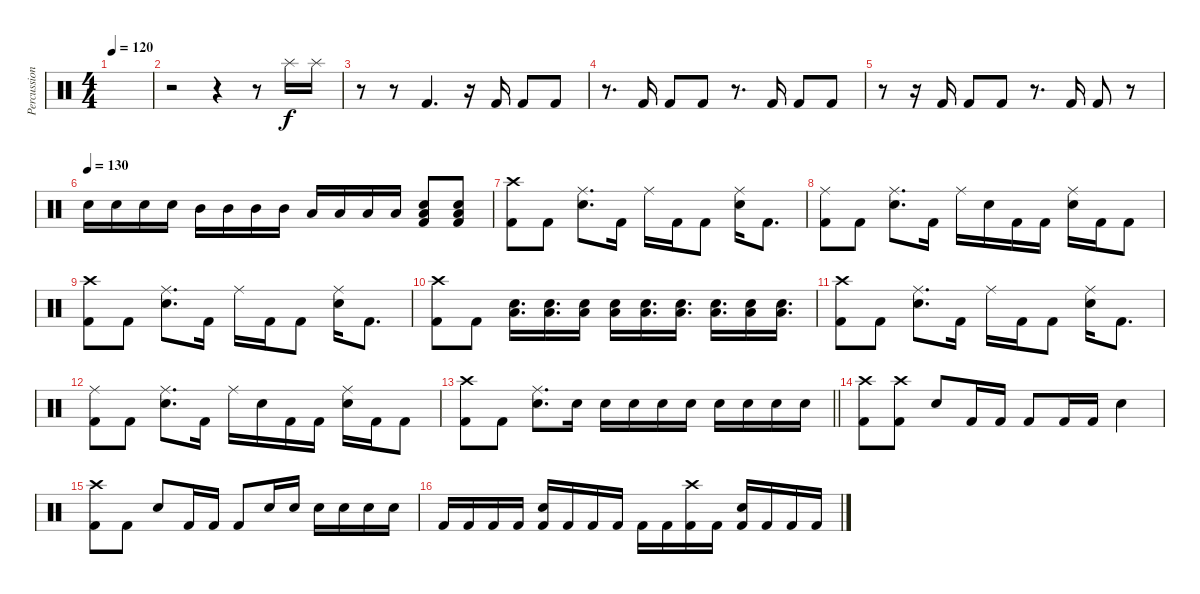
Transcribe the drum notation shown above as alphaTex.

\track ("Percussion" "Percussion") {instrument percussion}
\staff {score}
\articulation defaults
\ts (4 4)
\tempo 120
\clef neutral
\ks c
|
r.2 r.4 r.8 "Splash (hit)".16 "Splash (hit)".16 |
r.8 r.8 "Kick (hit) 2".4{d} r.16 "Kick (hit) 2".16 "Kick (hit) 2".8 "Kick (hit) 2".8 |
r.8{d} "Kick (hit) 2".16 "Kick (hit) 2".8 "Kick (hit) 2".8 r.8{d} "Kick (hit) 2".16 "Kick (hit) 2".8 "Kick (hit) 2".8 |
r.8 r.16 "Kick (hit) 2".16 "Kick (hit) 2".8 "Kick (hit) 2".8 r.8{d} "Kick (hit) 2".16 "Kick (hit) 2".8 r.8 |
\tempo (130)
"Snare (hit) 2".16 "Snare (hit) 2".16 "Snare (hit) 2".16 "Snare (hit) 2".16 "Mid Tom (hit)".16 "Mid Tom (hit)".16 "Mid Tom (hit)".16 "Mid Tom (hit)".16 "Low Tom (hit)".16 "Low Tom (hit)".16 "Low Tom (hit)".16 "Low Tom (hit)".16 ("Snare (hit) 2" "Low Tom (hit)" "Kick (hit) 2").8 ("Snare (hit) 2" "Low Tom (hit)" "Kick (hit) 2").8 |
("Kick (hit) 2" "Crash high (hit)").8 "Kick (hit) 2".8 ("Snare (hit) 2" "Ride (middle)").8{d} "Kick (hit) 2".16 "Ride (middle)".16 "Kick (hit) 2".16 "Kick (hit) 2".8 ("Snare (hit) 2" "Ride (middle)").16 "Kick (hit) 2".8{d} |
("Kick (hit) 2" "Ride (middle)").8 "Kick (hit) 2".8 ("Snare (hit) 2" "Ride (middle)").8{d} "Kick (hit) 2".16 "Ride (middle)".16 "Snare (hit) 2".16 "Kick (hit) 2".16 "Kick (hit) 2".16 ("Snare (hit) 2" "Ride (middle)").16 "Kick (hit) 2".16 "Kick (hit) 2".8 |
("Kick (hit) 2" "Crash high (hit)").8 "Kick (hit) 2".8 ("Snare (hit) 2" "Ride (middle)").8{d} "Kick (hit) 2".16 "Ride (middle)".16 "Kick (hit) 2".16 "Kick (hit) 2".8 ("Snare (hit) 2" "Ride (middle)").16 "Kick (hit) 2".8{d} |
("Kick (hit) 2" "Crash high (hit)").8 "Kick (hit) 2".8 ("Snare (hit) 2" "Low Tom (hit)").16{d} ("Snare (hit) 2" "Low Tom (hit)").16{d} ("Snare (hit) 2" "Low Tom (hit)").16 ("Snare (hit) 2" "Low Tom (hit)").16 ("Snare (hit) 2" "Low Tom (hit)").16{d} ("Snare (hit) 2" "Low Tom (hit)").16{d} ("Snare (hit) 2" "Low Tom (hit)").16{d} ("Snare (hit) 2" "Low Tom (hit)").16 ("Snare (hit) 2" "Low Tom (hit)").16{d} |
("Kick (hit) 2" "Crash high (hit)").8 "Kick (hit) 2".8 ("Snare (hit) 2" "Ride (middle)").8{d} "Kick (hit) 2".16 "Ride (middle)".16 "Kick (hit) 2".16 "Kick (hit) 2".8 ("Snare (hit) 2" "Ride (middle)").16 "Kick (hit) 2".8{d} |
("Kick (hit) 2" "Ride (middle)").8 "Kick (hit) 2".8 ("Snare (hit) 2" "Ride (middle)").8{d} "Kick (hit) 2".16 "Ride (middle)".16 "Snare (hit) 2".16 "Kick (hit) 2".16 "Kick (hit) 2".16 ("Snare (hit) 2" "Ride (middle)").16 "Kick (hit) 2".16 "Kick (hit) 2".8 |
\barLineRight lightlight
("Kick (hit) 2" "Crash high (hit)").8 "Kick (hit) 2".8 ("Snare (hit) 2" "Ride (middle)").8{d} "Snare (hit) 2".16 "Snare (hit) 2".16 "Snare (hit) 2".16 "Snare (hit) 2".16 "Snare (hit) 2".16 "Snare (hit) 2".16 "Snare (hit) 2".16 "Snare (hit) 2".16 "Snare (hit) 2".16 |
("Kick (hit) 2" "Crash high (hit)").8 ("Kick (hit) 2" "Crash high (hit)").8 "Snare (hit) 2".8 "Kick (hit) 2".16 "Kick (hit) 2".16 "Kick (hit) 2".8 "Kick (hit) 2".16 "Kick (hit) 2".16 "Snare (hit) 2".4 |
("Kick (hit) 2" "Crash high (hit)").8 "Kick (hit) 2".8 "Snare (hit) 2".8 "Kick (hit) 2".16 "Kick (hit) 2".16 "Kick (hit) 2".8 "Snare (hit) 2".16 "Snare (hit) 2".16 "Snare (hit) 2".16 "Snare (hit) 2".16 "Snare (hit) 2".16 "Snare (hit) 2".16 |
"Kick (hit) 2".16 "Kick (hit) 2".16 "Kick (hit) 2".16 "Kick (hit) 2".16 ("Kick (hit) 2" "Snare (hit) 2").16 "Kick (hit) 2".16 "Kick (hit) 2".16 "Kick (hit) 2".16 "Kick (hit) 2".16 "Kick (hit) 2".16 ("Kick (hit) 2" "Crash high (hit)").16 "Kick (hit) 2".16 ("Kick (hit) 2" "Snare (hit) 2").16 "Kick (hit) 2".16 "Kick (hit) 2".16 "Kick (hit) 2".16
